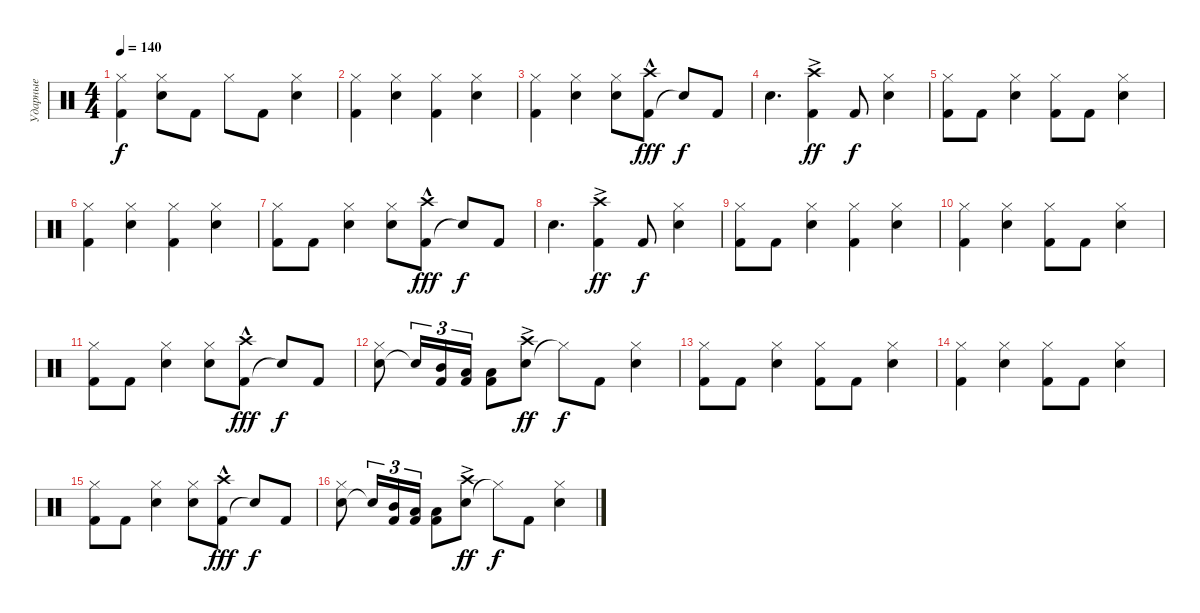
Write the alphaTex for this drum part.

\track ("Ударные" "Ударные") {instrument percussion}
\staff {score}
\articulation defaults
\ts (4 4)
\tempo 140
\clef neutral
\ks c
("Kick (hit) 2" "Hi-Hat (closed)").4{dy f} ("Snare (hit) 2" "Hi-Hat (closed)").8 "Kick (hit) 2".8 "Hi-Hat (closed)".8 "Kick (hit) 2".8 ("Snare (hit) 2" "Hi-Hat (closed)").4 |
("Kick (hit) 2" "Hi-Hat (closed)").4 ("Snare (hit) 2" "Hi-Hat (closed)").4 ("Kick (hit) 2" "Hi-Hat (closed)").4 ("Snare (hit) 2" "Hi-Hat (closed)").4 |
("Kick (hit) 2" "Hi-Hat (closed)").4 ("Snare (hit) 2" "Hi-Hat (closed)").4 ("Snare (hit) 2" "Hi-Hat (closed)").8 ("Kick (hit) 2" "Crash high (hit)"{hac}).8{dy fff} "Snare (hit)"{t}.8{dy f} "Kick (hit) 2".8 |
"Snare (hit) 2".4{d} ("Kick (hit) 2" "Crash high (hit)"{ac}).4{dy ff} "Kick (hit) 2".8{dy f} ("Snare (hit) 2" "Hi-Hat (closed)").4 |
("Kick (hit) 2" "Hi-Hat (closed)").8 "Kick (hit) 2".8 ("Snare (hit) 2" "Hi-Hat (closed)").4 ("Kick (hit) 2" "Hi-Hat (closed)").8 "Kick (hit) 2".8 ("Snare (hit) 2" "Hi-Hat (closed)").4 |
("Kick (hit) 2" "Hi-Hat (closed)").4 ("Snare (hit) 2" "Hi-Hat (closed)").4 ("Kick (hit) 2" "Hi-Hat (closed)").4 ("Snare (hit) 2" "Hi-Hat (closed)").4 |
("Kick (hit) 2" "Hi-Hat (closed)").8 "Kick (hit) 2".8 ("Snare (hit) 2" "Hi-Hat (closed)").4 ("Snare (hit) 2" "Hi-Hat (closed)").8 ("Kick (hit) 2" "Crash high (hit)"{hac}).8{dy fff} "Snare (hit)"{t}.8{dy f} "Kick (hit) 2".8 |
"Snare (hit) 2".4{d} ("Kick (hit) 2" "Crash high (hit)"{ac}).4{dy ff} "Kick (hit) 2".8{dy f} ("Snare (hit) 2" "Hi-Hat (closed)").4 |
("Kick (hit) 2" "Hi-Hat (closed)").8 "Kick (hit) 2".8 ("Snare (hit) 2" "Hi-Hat (closed)").4 ("Kick (hit) 2" "Hi-Hat (closed)").4 ("Snare (hit) 2" "Hi-Hat (closed)").4 |
("Kick (hit) 2" "Hi-Hat (closed)").4 ("Snare (hit) 2" "Hi-Hat (closed)").4 ("Kick (hit) 2" "Hi-Hat (closed)").8 "Kick (hit) 2".8 ("Snare (hit) 2" "Hi-Hat (closed)").4 |
("Kick (hit) 2" "Hi-Hat (closed)").8 "Kick (hit) 2".8 ("Snare (hit) 2" "Hi-Hat (closed)").4 ("Snare (hit) 2" "Hi-Hat (closed)").8 ("Kick (hit) 2" "Crash high (hit)"{hac}).8{dy fff} "Snare (hit)"{t}.8{dy f} "Kick (hit) 2".8 |
("Snare (hit) 2" "Hi-Hat (closed)").8 "Snare (hit)"{t}.16{tu (3 2)} ("Kick (hit) 2" "Mid Tom (hit)").16{tu (3 2)} ("Kick (hit) 2" "Low Tom (hit)").16{tu (3 2)} ("Kick (hit) 2" "Low Tom (hit)").8 ("Snare (hit) 2" "Crash high (hit)"{ac}).8{dy ff} "Hi-Hat (closed)"{t}.8{dy f} "Kick (hit) 2".8 ("Snare (hit) 2" "Hi-Hat (closed)").4 |
("Kick (hit) 2" "Hi-Hat (closed)").8 "Kick (hit) 2".8 ("Snare (hit) 2" "Hi-Hat (closed)").4 ("Kick (hit) 2" "Hi-Hat (closed)").8 "Kick (hit) 2".8 ("Snare (hit) 2" "Hi-Hat (closed)").4 |
("Kick (hit) 2" "Hi-Hat (closed)").4 ("Snare (hit) 2" "Hi-Hat (closed)").4 ("Kick (hit) 2" "Hi-Hat (closed)").8 "Kick (hit) 2".8 ("Snare (hit) 2" "Hi-Hat (closed)").4 |
("Kick (hit) 2" "Hi-Hat (closed)").8 "Kick (hit) 2".8 ("Snare (hit) 2" "Hi-Hat (closed)").4 ("Snare (hit) 2" "Hi-Hat (closed)").8 ("Kick (hit) 2" "Crash high (hit)"{hac}).8{dy fff} "Snare (hit)"{t}.8{dy f} "Kick (hit) 2".8 |
("Snare (hit) 2" "Hi-Hat (closed)").8 "Snare (hit)"{t}.16{tu (3 2)} ("Kick (hit) 2" "Mid Tom (hit)").16{tu (3 2)} ("Kick (hit) 2" "Low Tom (hit)").16{tu (3 2)} ("Kick (hit) 2" "Low Tom (hit)").8 ("Snare (hit) 2" "Crash high (hit)"{ac}).8{dy ff} "Hi-Hat (closed)"{t}.8{dy f} "Kick (hit) 2".8 ("Snare (hit) 2" "Hi-Hat (closed)").4
